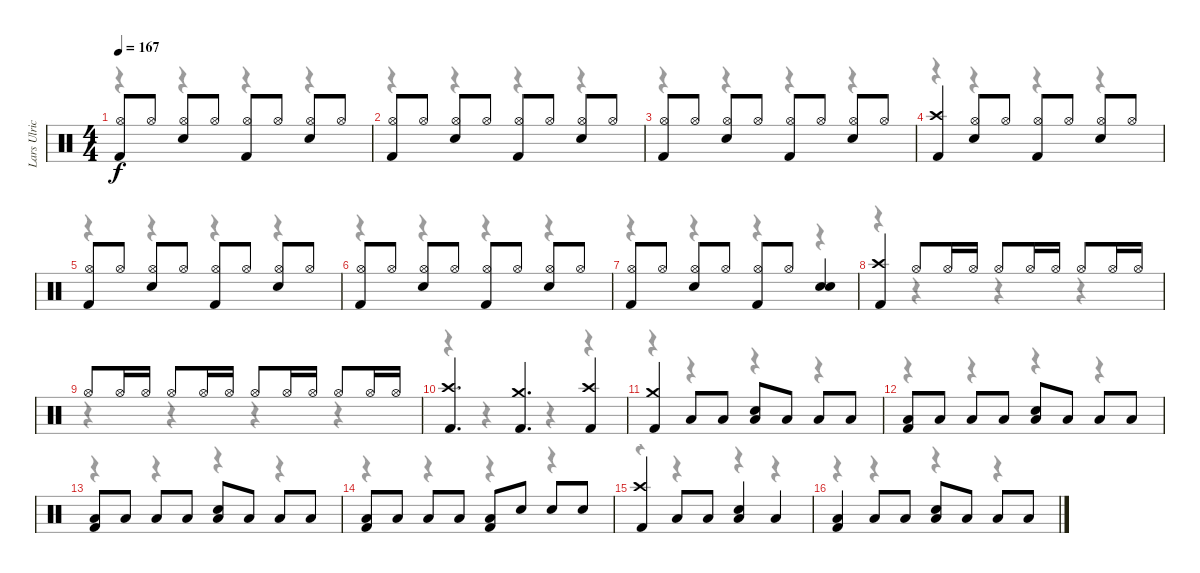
\track ("Lars Ulrich" "Lars Ulric") {instrument percussion}
\staff {score}
\articulation defaults
\voice
\ts (4 4)
\tempo 167
\clef neutral
\ks c
("Hi-Hat (open)" "Kick (hit) 2").8{dy f} "Hi-Hat (open)".8 ("Hi-Hat (open)" "Snare (hit) 2").8 "Hi-Hat (open)".8 ("Hi-Hat (open)" "Kick (hit) 2").8 "Hi-Hat (open)".8 ("Hi-Hat (open)" "Snare (hit) 2").8 "Hi-Hat (open)".8 |
("Hi-Hat (open)" "Kick (hit) 2").8 "Hi-Hat (open)".8 ("Hi-Hat (open)" "Snare (hit) 2").8 "Hi-Hat (open)".8 ("Hi-Hat (open)" "Kick (hit) 2").8 "Hi-Hat (open)".8 ("Hi-Hat (open)" "Snare (hit) 2").8 "Hi-Hat (open)".8 |
("Hi-Hat (open)" "Kick (hit) 2").8 "Hi-Hat (open)".8 ("Hi-Hat (open)" "Snare (hit) 2").8 "Hi-Hat (open)".8 ("Hi-Hat (open)" "Kick (hit) 2").8 "Hi-Hat (open)".8 ("Hi-Hat (open)" "Snare (hit) 2").8 "Hi-Hat (open)".8 |
("Crash high (hit)" "Kick (hit) 2").4 ("Hi-Hat (open)" "Snare (hit) 2").8 "Hi-Hat (open)".8 ("Hi-Hat (open)" "Kick (hit) 2").8 "Hi-Hat (open)".8 ("Hi-Hat (open)" "Snare (hit) 2").8 "Hi-Hat (open)".8 |
("Hi-Hat (open)" "Kick (hit) 2").8 "Hi-Hat (open)".8 ("Hi-Hat (open)" "Snare (hit) 2").8 "Hi-Hat (open)".8 ("Hi-Hat (open)" "Kick (hit) 2").8 "Hi-Hat (open)".8 ("Hi-Hat (open)" "Snare (hit) 2").8 "Hi-Hat (open)".8 |
("Hi-Hat (open)" "Kick (hit) 2").8 "Hi-Hat (open)".8 ("Hi-Hat (open)" "Snare (hit) 2").8 "Hi-Hat (open)".8 ("Hi-Hat (open)" "Kick (hit) 2").8 "Hi-Hat (open)".8 ("Hi-Hat (open)" "Snare (hit) 2").8 "Hi-Hat (open)".8 |
("Hi-Hat (open)" "Kick (hit) 2").8 "Hi-Hat (open)".8 ("Hi-Hat (open)" "Snare (hit) 2").8 "Hi-Hat (open)".8 ("Hi-Hat (open)" "Kick (hit) 2").8 "Hi-Hat (open)".8 ("Snare (hit) 2" "Snare (hit) 2").4 |
("Crash high (hit)" "Kick (hit) 2").4 "Hi-Hat (open)".8 "Hi-Hat (open)".16 "Hi-Hat (open)".16 "Hi-Hat (open)".8 "Hi-Hat (open)".16 "Hi-Hat (open)".16 "Hi-Hat (open)".8 "Hi-Hat (open)".16 "Hi-Hat (open)".16 |
"Hi-Hat (open)".8 "Hi-Hat (open)".16 "Hi-Hat (open)".16 "Hi-Hat (open)".8 "Hi-Hat (open)".16 "Hi-Hat (open)".16 "Hi-Hat (open)".8 "Hi-Hat (open)".16 "Hi-Hat (open)".16 "Hi-Hat (open)".8 "Hi-Hat (open)".16 "Hi-Hat (open)".16 |
("Crash high (hit)" "Kick (hit) 2").4{d} ("Crash medium (hit)" "Kick (hit) 2").4{d} ("Crash high (hit)" "Kick (hit) 2").4 |
("Crash medium (hit)" "Kick (hit) 2").4 "Low Tom (hit)".8 "Low Tom (hit)".8 ("Snare (hit) 2" "Low Tom (hit)").8 "Low Tom (hit)".8 "Low Tom (hit)".8 "Low Tom (hit)".8 |
("Low Tom (hit)" "Kick (hit) 2").8 "Low Tom (hit)".8 "Low Tom (hit)".8 "Low Tom (hit)".8 ("Low Tom (hit)" "Snare (hit) 2").8 "Low Tom (hit)".8 "Low Tom (hit)".8 "Low Tom (hit)".8 |
("Low Tom (hit)" "Kick (hit) 2").8 "Low Tom (hit)".8 "Low Tom (hit)".8 "Low Tom (hit)".8 ("Low Tom (hit)" "Snare (hit) 2").8 "Low Tom (hit)".8 "Low Tom (hit)".8 "Low Tom (hit)".8 |
("Low Tom (hit)" "Kick (hit) 2").8 "Low Tom (hit)".8 "Low Tom (hit)".8 "Low Tom (hit)".8 ("Low Tom (hit)" "Kick (hit) 2").8 "Snare (hit) 2".8 "Snare (hit) 2".8 "Snare (hit) 2".8 |
("Crash high (hit)" "Kick (hit) 2").4 "Low Tom (hit)".8 "Low Tom (hit)".8 ("Snare (hit) 2" "Low Tom (hit)").4 "Low Tom (hit)".4 |
("Low Tom (hit)" "Kick (hit) 2").4 "Low Tom (hit)".8 "Low Tom (hit)".8 ("Low Tom (hit)" "Snare (hit) 2").8 "Low Tom (hit)".8 "Low Tom (hit)".8 "Low Tom (hit)".8
\voice
\clef neutral
\ottava regular
\simile none
\ks c
r.4{dy f} r.4 r.4 r.4 |
r.4 r.4 r.4 r.4 |
r.4 r.4 r.4 r.4 |
r.4 r.4 r.4 r.4 |
r.4 r.4 r.4 r.4 |
r.4 r.4 r.4 r.4 |
r.4 r.4 r.4 r.4 |
r.4 r.4 r.4 r.4 |
r.4 r.4 r.4 r.4 |
r.4 r.4 r.4 r.4 |
r.4 r.4 r.4 r.4 |
r.4 r.4 r.4 r.4 |
r.4 r.4 r.4 r.4 |
r.4 r.4 r.4 r.4 |
r.4 r.4 r.4 r.4 |
r.4 r.4 r.4 r.4
